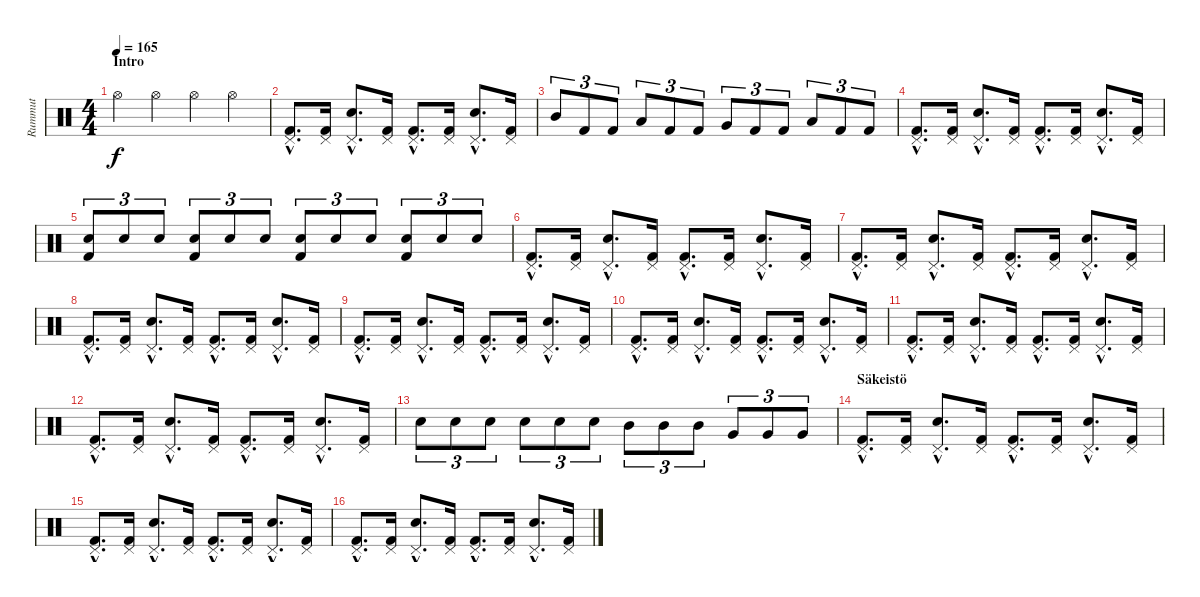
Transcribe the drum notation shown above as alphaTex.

\track ("Rummut" "Rummut") {instrument percussion}
\staff {score}
\articulation defaults
\ts (4 4)
\section ("" "Intro")
\tempo 165
\clef neutral
\ks c "Hi-Hat (open)".4{dy f} "Hi-Hat (open)".4 "Hi-Hat (open)".4 "Hi-Hat (open)".4
|
("Pedal Hi-Hat (hit)"{hac} "Kick (hit) 2"{hac}).8{d} ("Pedal Hi-Hat (hit)" "Kick (hit) 2").16 ("Pedal Hi-Hat (hit)"{hac} "Snare (hit) 2"{hac}).8{d} ("Pedal Hi-Hat (hit)" "Kick (hit) 2").16 ("Pedal Hi-Hat (hit)"{hac} "Kick (hit) 2"{hac}).8{d} ("Pedal Hi-Hat (hit)" "Kick (hit) 2").16 ("Pedal Hi-Hat (hit)"{hac} "Snare (hit) 2"{hac}).8{d} ("Pedal Hi-Hat (hit)" "Kick (hit) 2").16 |
"Mid Tom (hit)".8{tu (3 2)} "Kick (hit) 2".8{tu (3 2)} "Kick (hit) 2".8{tu (3 2)} "Low Tom (hit)".8{tu (3 2)} "Kick (hit) 2".8{tu (3 2)} "Kick (hit) 2".8{tu (3 2)} "Very Low Tom (hit)".8{tu (3 2)} "Kick (hit) 2".8{tu (3 2)} "Kick (hit) 2".8{tu (3 2)} "Low Floor Tom (hit)".8{tu (3 2)} "Kick (hit) 2".8{tu (3 2)} "Kick (hit) 2".8{tu (3 2)} |
("Pedal Hi-Hat (hit)"{hac} "Kick (hit) 2"{hac}).8{d} ("Pedal Hi-Hat (hit)" "Kick (hit) 2").16 ("Pedal Hi-Hat (hit)"{hac} "Snare (hit) 2"{hac}).8{d} ("Pedal Hi-Hat (hit)" "Kick (hit) 2").16 ("Pedal Hi-Hat (hit)"{hac} "Kick (hit) 2"{hac}).8{d} ("Pedal Hi-Hat (hit)" "Kick (hit) 2").16 ("Pedal Hi-Hat (hit)"{hac} "Snare (hit) 2"{hac}).8{d} ("Pedal Hi-Hat (hit)" "Kick (hit) 2").16 |
("Snare (hit) 2" "Kick (hit) 2").8{tu (3 2)} "Snare (hit) 2".8{tu (3 2)} "Snare (hit) 2".8{tu (3 2)} ("Snare (hit) 2" "Kick (hit) 2").8{tu (3 2)} "Snare (hit) 2".8{tu (3 2)} "Snare (hit) 2".8{tu (3 2)} ("Snare (hit) 2" "Kick (hit) 2").8{tu (3 2)} "Snare (hit) 2".8{tu (3 2)} "Snare (hit) 2".8{tu (3 2)} ("Snare (hit) 2" "Kick (hit) 2").8{tu (3 2)} "Snare (hit) 2".8{tu (3 2)} "Snare (hit) 2".8{tu (3 2)} |
("Pedal Hi-Hat (hit)"{hac} "Kick (hit) 2"{hac}).8{d} ("Pedal Hi-Hat (hit)" "Kick (hit) 2").16 ("Pedal Hi-Hat (hit)"{hac} "Snare (hit) 2"{hac}).8{d} ("Pedal Hi-Hat (hit)" "Kick (hit) 2").16 ("Pedal Hi-Hat (hit)"{hac} "Kick (hit) 2"{hac}).8{d} ("Pedal Hi-Hat (hit)" "Kick (hit) 2").16 ("Pedal Hi-Hat (hit)"{hac} "Snare (hit) 2"{hac}).8{d} ("Pedal Hi-Hat (hit)" "Kick (hit) 2").16 |
("Pedal Hi-Hat (hit)"{hac} "Kick (hit) 2"{hac}).8{d} ("Pedal Hi-Hat (hit)" "Kick (hit) 2").16 ("Pedal Hi-Hat (hit)"{hac} "Snare (hit) 2"{hac}).8{d} ("Pedal Hi-Hat (hit)" "Kick (hit) 2").16 ("Pedal Hi-Hat (hit)"{hac} "Kick (hit) 2"{hac}).8{d} ("Pedal Hi-Hat (hit)" "Kick (hit) 2").16 ("Pedal Hi-Hat (hit)"{hac} "Snare (hit) 2"{hac}).8{d} ("Pedal Hi-Hat (hit)" "Kick (hit) 2").16 |
("Pedal Hi-Hat (hit)"{hac} "Kick (hit) 2"{hac}).8{d} ("Pedal Hi-Hat (hit)" "Kick (hit) 2").16 ("Pedal Hi-Hat (hit)"{hac} "Snare (hit) 2"{hac}).8{d} ("Pedal Hi-Hat (hit)" "Kick (hit) 2").16 ("Pedal Hi-Hat (hit)"{hac} "Kick (hit) 2"{hac}).8{d} ("Pedal Hi-Hat (hit)" "Kick (hit) 2").16 ("Pedal Hi-Hat (hit)"{hac} "Snare (hit) 2"{hac}).8{d} ("Pedal Hi-Hat (hit)" "Kick (hit) 2").16 |
("Pedal Hi-Hat (hit)"{hac} "Kick (hit) 2"{hac}).8{d} ("Pedal Hi-Hat (hit)" "Kick (hit) 2").16 ("Pedal Hi-Hat (hit)"{hac} "Snare (hit) 2"{hac}).8{d} ("Pedal Hi-Hat (hit)" "Kick (hit) 2").16 ("Pedal Hi-Hat (hit)"{hac} "Kick (hit) 2"{hac}).8{d} ("Pedal Hi-Hat (hit)" "Kick (hit) 2").16 ("Pedal Hi-Hat (hit)"{hac} "Snare (hit) 2"{hac}).8{d} ("Pedal Hi-Hat (hit)" "Kick (hit) 2").16 |
("Pedal Hi-Hat (hit)"{hac} "Kick (hit) 2"{hac}).8{d} ("Pedal Hi-Hat (hit)" "Kick (hit) 2").16 ("Pedal Hi-Hat (hit)"{hac} "Snare (hit) 2"{hac}).8{d} ("Pedal Hi-Hat (hit)" "Kick (hit) 2").16 ("Pedal Hi-Hat (hit)"{hac} "Kick (hit) 2"{hac}).8{d} ("Pedal Hi-Hat (hit)" "Kick (hit) 2").16 ("Pedal Hi-Hat (hit)"{hac} "Snare (hit) 2"{hac}).8{d} ("Pedal Hi-Hat (hit)" "Kick (hit) 2").16 |
("Pedal Hi-Hat (hit)"{hac} "Kick (hit) 2"{hac}).8{d} ("Pedal Hi-Hat (hit)" "Kick (hit) 2").16 ("Pedal Hi-Hat (hit)"{hac} "Snare (hit) 2"{hac}).8{d} ("Pedal Hi-Hat (hit)" "Kick (hit) 2").16 ("Pedal Hi-Hat (hit)"{hac} "Kick (hit) 2"{hac}).8{d} ("Pedal Hi-Hat (hit)" "Kick (hit) 2").16 ("Pedal Hi-Hat (hit)"{hac} "Snare (hit) 2"{hac}).8{d} ("Pedal Hi-Hat (hit)" "Kick (hit) 2").16 |
("Pedal Hi-Hat (hit)"{hac} "Kick (hit) 2"{hac}).8{d} ("Pedal Hi-Hat (hit)" "Kick (hit) 2").16 ("Pedal Hi-Hat (hit)"{hac} "Snare (hit) 2"{hac}).8{d} ("Pedal Hi-Hat (hit)" "Kick (hit) 2").16 ("Pedal Hi-Hat (hit)"{hac} "Kick (hit) 2"{hac}).8{d} ("Pedal Hi-Hat (hit)" "Kick (hit) 2").16 ("Pedal Hi-Hat (hit)"{hac} "Snare (hit) 2"{hac}).8{d} ("Pedal Hi-Hat (hit)" "Kick (hit) 2").16 |
"Snare (hit) 2".8{tu (3 2)} "Snare (hit) 2".8{tu (3 2)} "Snare (hit) 2".8{tu (3 2)} "Snare (hit) 2".8{tu (3 2)} "Snare (hit) 2".8{tu (3 2)} "Snare (hit) 2".8{tu (3 2)} "Mid Tom (hit)".8{tu (3 2)} "Mid Tom (hit)".8{tu (3 2)} "Mid Tom (hit)".8{tu (3 2)} "Very Low Tom (hit)".8{tu (3 2)} "Very Low Tom (hit)".8{tu (3 2)} "Very Low Tom (hit)".8{tu (3 2)} |
\section ("" "Säkeistö")
("Pedal Hi-Hat (hit)"{hac} "Kick (hit) 2"{hac}).8{d} ("Pedal Hi-Hat (hit)" "Kick (hit) 2").16 ("Pedal Hi-Hat (hit)"{hac} "Snare (hit) 2"{hac}).8{d} ("Pedal Hi-Hat (hit)" "Kick (hit) 2").16 ("Pedal Hi-Hat (hit)"{hac} "Kick (hit) 2"{hac}).8{d} ("Pedal Hi-Hat (hit)" "Kick (hit) 2").16 ("Pedal Hi-Hat (hit)"{hac} "Snare (hit) 2"{hac}).8{d} ("Pedal Hi-Hat (hit)" "Kick (hit) 2").16 |
("Pedal Hi-Hat (hit)"{hac} "Kick (hit) 2"{hac}).8{d} ("Pedal Hi-Hat (hit)" "Kick (hit) 2").16 ("Pedal Hi-Hat (hit)"{hac} "Snare (hit) 2"{hac}).8{d} ("Pedal Hi-Hat (hit)" "Kick (hit) 2").16 ("Pedal Hi-Hat (hit)"{hac} "Kick (hit) 2"{hac}).8{d} ("Pedal Hi-Hat (hit)" "Kick (hit) 2").16 ("Pedal Hi-Hat (hit)"{hac} "Snare (hit) 2"{hac}).8{d} ("Pedal Hi-Hat (hit)" "Kick (hit) 2").16 |
("Pedal Hi-Hat (hit)"{hac} "Kick (hit) 2"{hac}).8{d} ("Pedal Hi-Hat (hit)" "Kick (hit) 2").16 ("Pedal Hi-Hat (hit)"{hac} "Snare (hit) 2"{hac}).8{d} ("Pedal Hi-Hat (hit)" "Kick (hit) 2").16 ("Pedal Hi-Hat (hit)"{hac} "Kick (hit) 2"{hac}).8{d} ("Pedal Hi-Hat (hit)" "Kick (hit) 2").16 ("Pedal Hi-Hat (hit)"{hac} "Snare (hit) 2"{hac}).8{d} ("Pedal Hi-Hat (hit)" "Kick (hit) 2").16
